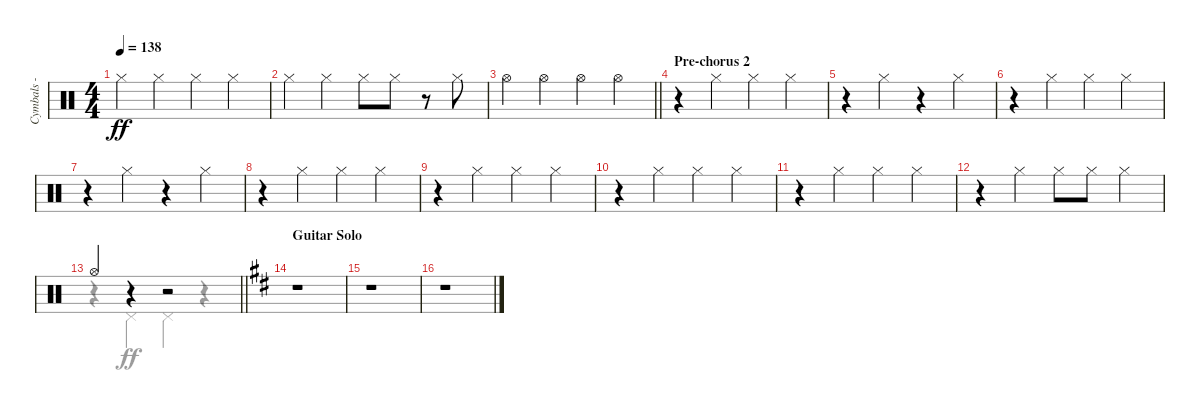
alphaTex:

\track ("Cymbals - hi-hat" "Cymbals - ") {instrument percussion}
\staff {score}
\articulation defaults
\voice
\ts (4 4)
\tempo 138
\clef neutral
\ks c "Hi-Hat (closed)".4{dy ff} "Hi-Hat (closed)".4 "Hi-Hat (closed)".4 "Hi-Hat (closed)".4
|
"Hi-Hat (closed)".4 "Hi-Hat (closed)".4 "Hi-Hat (closed)".8 "Hi-Hat (closed)".8 r.8 "Hi-Hat (closed)".8 |
\barLineRight lightlight "Hi-Hat (open)".4 "Hi-Hat (open)".4 "Hi-Hat (open)".4 "Hi-Hat (open)".4
|
\section ("" "Pre-chorus 2")
r.4 "Hi-Hat (closed)".4 "Hi-Hat (closed)".4 "Hi-Hat (closed)".4 |
r.4 "Hi-Hat (closed)".4 r.4 "Hi-Hat (closed)".4 |
r.4 "Hi-Hat (closed)".4 "Hi-Hat (closed)".4 "Hi-Hat (closed)".4 |
r.4 "Hi-Hat (closed)".4 r.4 "Hi-Hat (closed)".4 |
r.4 "Hi-Hat (closed)".4 "Hi-Hat (closed)".4 "Hi-Hat (closed)".4 |
r.4 "Hi-Hat (closed)".4 "Hi-Hat (closed)".4 "Hi-Hat (closed)".4 |
r.4 "Hi-Hat (closed)".4 "Hi-Hat (closed)".4 "Hi-Hat (closed)".4 |
r.4 "Hi-Hat (closed)".4 "Hi-Hat (closed)".4 "Hi-Hat (closed)".4 |
r.4 "Hi-Hat (closed)".4 "Hi-Hat (closed)".8 "Hi-Hat (closed)".8 "Hi-Hat (closed)".4 |
\barLineRight lightlight "Hi-Hat (open)".4
r.4 r.2 |
\section ("" "Guitar Solo")
\ks d
r.1 |
r.1 |
r.1
\voice
\clef neutral
\ottava regular
\simile none
\ks c
|
|
\barLineRight lightlight
|
|
|
|
|
|
|
|
|
|
\barLineRight lightlight
r.4 "Pedal Hi-Hat (hit)".4{dy ff} "Pedal Hi-Hat (hit)".4 r.4 |
\ks d
|
|
